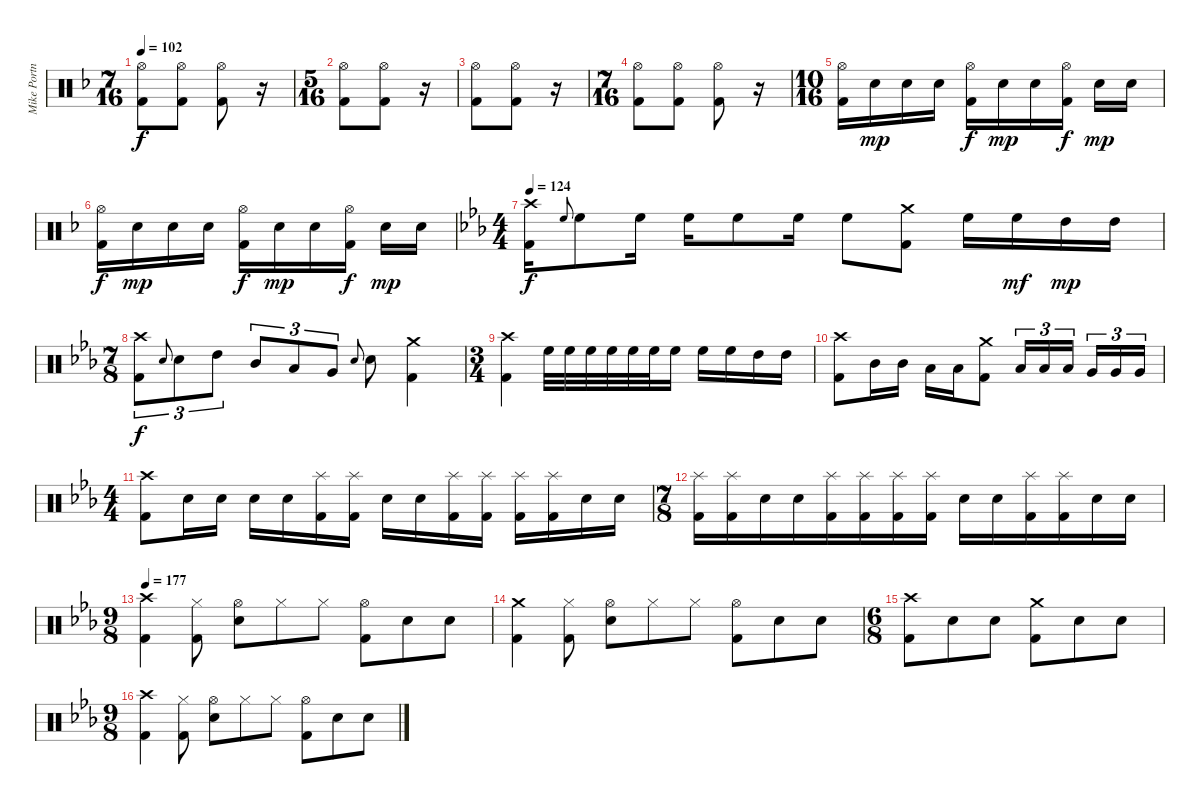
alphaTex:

\track ("Mike Portnoy" "Mike Portn") {instrument percussion}
\staff {score}
\articulation defaults
\ts (7 16)
\tempo 102
\clef neutral
\ks f
("Hi-Hat (open)" "Kick (hit) 2").8{dy f} ("Hi-Hat (open)" "Kick (hit) 2").8 ("Hi-Hat (open)" "Kick (hit) 2").8 r.16 |
\ts (5 16)
("Hi-Hat (open)" "Kick (hit) 2").8 ("Hi-Hat (open)" "Kick (hit) 2").8 r.16 |
("Hi-Hat (open)" "Kick (hit) 2").8 ("Hi-Hat (open)" "Kick (hit) 2").8 r.16 |
\ts (7 16)
("Hi-Hat (open)" "Kick (hit) 2").8 ("Hi-Hat (open)" "Kick (hit) 2").8 ("Hi-Hat (open)" "Kick (hit) 2").8 r.16 |
\ts (10 16)
("Hi-Hat (open)" "Kick (hit) 2").16 "Snare (hit) 2".16{dy mp} "Snare (hit) 2".16 "Snare (hit) 2".16 ("Hi-Hat (open)" "Kick (hit) 2").16{dy f} "Snare (hit) 2".16{dy mp} "Snare (hit) 2".16 ("Hi-Hat (open)" "Kick (hit) 2").16{dy f} "Snare (hit) 2".16{dy mp} "Snare (hit) 2".16 |
("Hi-Hat (open)" "Kick (hit) 2").16{dy f} "Snare (hit) 2".16{dy mp} "Snare (hit) 2".16 "Snare (hit) 2".16 ("Hi-Hat (open)" "Kick (hit) 2").16{dy f} "Snare (hit) 2".16{dy mp} "Snare (hit) 2".16 ("Hi-Hat (open)" "Kick (hit) 2").16{dy f} "Snare (hit) 2".16{dy mp} "Snare (hit) 2".16 |
\ts (4 4)
\tempo 124
\ks eb
("Crash high (hit)" "Kick (hit) 2").16{dy f} "High Floor Tom (hit)".8{gr onbeat} "High Floor Tom (hit)".8 "High Floor Tom (hit)".16 "High Floor Tom (hit)".16 "High Floor Tom (hit)".8 "High Floor Tom (hit)".16 "High Floor Tom (hit)".8 ("Crash medium (hit)" "Kick (hit) 2").8 "High Floor Tom (hit)".16 "High Floor Tom (hit)".16{dy mf} "High Tom (hit)".16{dy mp} "High Tom (hit)".16 |
\ts (7 8)
("Crash high (hit)" "Kick (hit) 2").8{tu (3 2) dy f} "Snare (hit) 2".8{gr onbeat} "Snare (hit) 2".8{tu (3 2)} "High Tom (hit)".8{tu (3 2)} "Mid Tom (hit)".8{tu (3 2)} "Low Tom (hit)".8{tu (3 2)} "Very Low Tom (hit)".8{tu (3 2)} "Snare (hit) 2".8{gr onbeat} "Snare (hit) 2".8 ("Crash medium (hit)" "Kick (hit) 2").4 |
\ts (3 4)
("Crash high (hit)" "Kick (hit) 2").4 "High Floor Tom (hit)".32 "High Floor Tom (hit)".32 "High Floor Tom (hit)".32 "High Floor Tom (hit)".32 "High Floor Tom (hit)".32 "High Floor Tom (hit)".32 "High Floor Tom (hit)".16 "High Floor Tom (hit)".16 "High Floor Tom (hit)".16 "High Tom (hit)".16 "High Tom (hit)".16 |
("Crash high (hit)" "Kick (hit) 2").8 "Mid Tom (hit)".16 "Mid Tom (hit)".16 "Low Tom (hit)".16 "Low Tom (hit)".16 ("Crash medium (hit)" "Kick (hit) 2").8 "Low Tom (hit)".16{tu (3 2)} "Low Tom (hit)".16{tu (3 2)} "Low Tom (hit)".16{tu (3 2) beam splitsecondary} "Very Low Tom (hit)".16{tu (3 2)} "Very Low Tom (hit)".16{tu (3 2)} "Very Low Tom (hit)".16{tu (3 2)} |
\ts (4 4)
("Crash high (hit)" "Kick (hit) 2").8 "Snare (hit) 2".16 "Snare (hit) 2".16 "Snare (hit) 2".16 "Snare (hit) 2".16 ("Splash (hit)" "Kick (hit) 2").16 ("Splash (hit)" "Kick (hit) 2").16 "Snare (hit) 2".16 "Snare (hit) 2".16 ("Splash (hit)" "Kick (hit) 2").16 ("Splash (hit)" "Kick (hit) 2").16 ("Splash (hit)" "Kick (hit) 2").16 ("Splash (hit)" "Kick (hit) 2").16 "Snare (hit) 2".16 "Snare (hit) 2".16 |
\ts (7 8)
("Splash (hit)" "Kick (hit) 2").16 ("Splash (hit)" "Kick (hit) 2").16 "Snare (hit) 2".16 "Snare (hit) 2".16 ("Splash (hit)" "Kick (hit) 2").16 ("Splash (hit)" "Kick (hit) 2").16 ("Splash (hit)" "Kick (hit) 2").16 ("Splash (hit)" "Kick (hit) 2").16 "Snare (hit) 2".16 "Snare (hit) 2".16 ("Splash (hit)" "Kick (hit) 2").16 ("Splash (hit)" "Kick (hit) 2").16 "Snare (hit) 2".16 "Snare (hit) 2".16 |
\ts (9 8)
\tempo 177
("Crash high (hit)" "Kick (hit) 2").4 ("Hi-Hat (closed)" "Kick (hit) 2").8 ("Hi-Hat (open)" "Snare (hit) 2").8 "Hi-Hat (closed)".8 "Hi-Hat (closed)".8 ("Hi-Hat (open)" "Kick (hit) 2").8 "Snare (hit) 2".8 "Snare (hit) 2".8 |
("Crash medium (hit)" "Kick (hit) 2").4 ("Hi-Hat (closed)" "Kick (hit) 2").8 ("Hi-Hat (open)" "Snare (hit) 2").8 "Hi-Hat (closed)".8 "Hi-Hat (closed)".8 ("Hi-Hat (open)" "Kick (hit) 2").8 "Snare (hit) 2".8 "Snare (hit) 2".8 |
\ts (6 8)
("Crash high (hit)" "Kick (hit) 2").8 "Snare (hit) 2".8 "Snare (hit) 2".8 ("Crash medium (hit)" "Kick (hit) 2").8 "Snare (hit) 2".8 "Snare (hit) 2".8 |
\ts (9 8)
("Crash high (hit)" "Kick (hit) 2").4 ("Hi-Hat (closed)" "Kick (hit) 2").8 ("Hi-Hat (open)" "Snare (hit) 2").8 "Hi-Hat (closed)".8 "Hi-Hat (closed)".8 ("Hi-Hat (open)" "Kick (hit) 2").8 "Snare (hit) 2".8 "Snare (hit) 2".8
